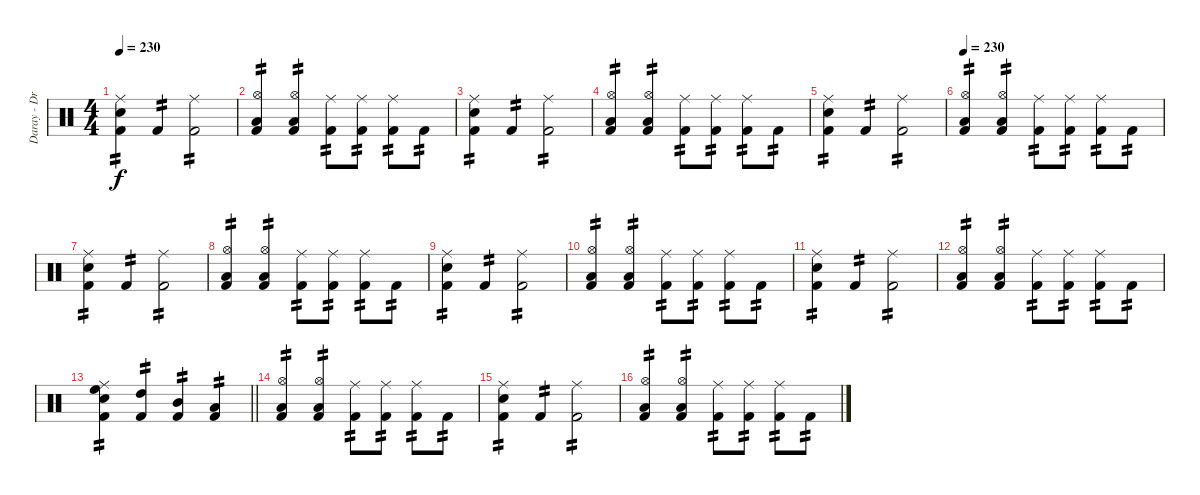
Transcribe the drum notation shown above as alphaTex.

\track ("Daray - Drums" "Daray - Dr") {instrument percussion}
\staff {score}
\articulation defaults
\ts (4 4)
\tempo 230
\clef neutral
\ks c
("Ride (middle)" "Electric Snare (hit)" "Kick (hit) 2").4{tp 2 dy f} "Kick (hit) 2".4{tp 2} ("Ride (middle)" "Kick (hit) 2").2{tp 2} |
("Hi-Hat (open)" "Low Floor Tom (hit)" "Kick (hit) 2").4{tp 2} ("Hi-Hat (open)" "Low Floor Tom (hit)" "Kick (hit) 2").4{tp 2} ("Ride (middle)" "Kick (hit) 2").8{tp 2} ("Ride (middle)" "Kick (hit) 2").8{tp 2} ("Ride (middle)" "Kick (hit) 2").8{tp 2} "Kick (hit) 2".8{tp 2} |
("Ride (middle)" "Electric Snare (hit)" "Kick (hit) 2").4{tp 2} "Kick (hit) 2".4{tp 2} ("Ride (middle)" "Kick (hit) 2").2{tp 2} |
("Hi-Hat (open)" "Low Floor Tom (hit)" "Kick (hit) 2").4{tp 2} ("Hi-Hat (open)" "Low Floor Tom (hit)" "Kick (hit) 2").4{tp 2} ("Ride (middle)" "Kick (hit) 2").8{tp 2} ("Ride (middle)" "Kick (hit) 2").8{tp 2} ("Ride (middle)" "Kick (hit) 2").8{tp 2} "Kick (hit) 2".8{tp 2} |
("Ride (middle)" "Electric Snare (hit)" "Kick (hit) 2").4{tp 2} "Kick (hit) 2".4{tp 2} ("Ride (middle)" "Kick (hit) 2").2{tp 2} |
\tempo 230
("Hi-Hat (open)" "Low Floor Tom (hit)" "Kick (hit) 2").4{tp 2} ("Hi-Hat (open)" "Low Floor Tom (hit)" "Kick (hit) 2").4{tp 2} ("Ride (middle)" "Kick (hit) 2").8{tp 2} ("Ride (middle)" "Kick (hit) 2").8{tp 2} ("Ride (middle)" "Kick (hit) 2").8{tp 2} "Kick (hit) 2".8{tp 2} |
("Ride (middle)" "Electric Snare (hit)" "Kick (hit) 2").4{tp 2} "Kick (hit) 2".4{tp 2} ("Ride (middle)" "Kick (hit) 2").2{tp 2} |
("Hi-Hat (open)" "Low Floor Tom (hit)" "Kick (hit) 2").4{tp 2} ("Hi-Hat (open)" "Low Floor Tom (hit)" "Kick (hit) 2").4{tp 2} ("Ride (middle)" "Kick (hit) 2").8{tp 2} ("Ride (middle)" "Kick (hit) 2").8{tp 2} ("Ride (middle)" "Kick (hit) 2").8{tp 2} "Kick (hit) 2".8{tp 2} |
("Ride (middle)" "Electric Snare (hit)" "Kick (hit) 2").4{tp 2} "Kick (hit) 2".4{tp 2} ("Ride (middle)" "Kick (hit) 2").2{tp 2} |
("Hi-Hat (open)" "Low Floor Tom (hit)" "Kick (hit) 2").4{tp 2} ("Hi-Hat (open)" "Low Floor Tom (hit)" "Kick (hit) 2").4{tp 2} ("Ride (middle)" "Kick (hit) 2").8{tp 2} ("Ride (middle)" "Kick (hit) 2").8{tp 2} ("Ride (middle)" "Kick (hit) 2").8{tp 2} "Kick (hit) 2".8{tp 2} |
("Ride (middle)" "Electric Snare (hit)" "Kick (hit) 2").4{tp 2} "Kick (hit) 2".4{tp 2} ("Ride (middle)" "Kick (hit) 2").2{tp 2} |
("Hi-Hat (open)" "Low Floor Tom (hit)" "Kick (hit) 2").4{tp 2} ("Hi-Hat (open)" "Low Floor Tom (hit)" "Kick (hit) 2").4{tp 2} ("Ride (middle)" "Kick (hit) 2").8{tp 2} ("Ride (middle)" "Kick (hit) 2").8{tp 2} ("Ride (middle)" "Kick (hit) 2").8{tp 2} "Kick (hit) 2".8{tp 2} |
\barLineRight lightlight
("Ride (middle)" "Electric Snare (hit)" "High Floor Tom (hit)" "Kick (hit) 2").4{tp 2} ("High Tom (hit)" "Kick (hit) 2").4{tp 2} ("Mid Tom (hit)" "Kick (hit) 2").4{tp 2} ("Low Tom (hit)" "Kick (hit) 2").4{tp 2} |
("Hi-Hat (open)" "Low Floor Tom (hit)" "Kick (hit) 2").4{tp 2} ("Hi-Hat (open)" "Low Floor Tom (hit)" "Kick (hit) 2").4{tp 2} ("Ride (middle)" "Kick (hit) 2").8{tp 2} ("Ride (middle)" "Kick (hit) 2").8{tp 2} ("Ride (middle)" "Kick (hit) 2").8{tp 2} "Kick (hit) 2".8{tp 2} |
("Ride (middle)" "Electric Snare (hit)" "Kick (hit) 2").4{tp 2} "Kick (hit) 2".4{tp 2} ("Ride (middle)" "Kick (hit) 2").2{tp 2} |
("Hi-Hat (open)" "Low Floor Tom (hit)" "Kick (hit) 2").4{tp 2} ("Hi-Hat (open)" "Low Floor Tom (hit)" "Kick (hit) 2").4{tp 2} ("Ride (middle)" "Kick (hit) 2").8{tp 2} ("Ride (middle)" "Kick (hit) 2").8{tp 2} ("Ride (middle)" "Kick (hit) 2").8{tp 2} "Kick (hit) 2".8{tp 2}
